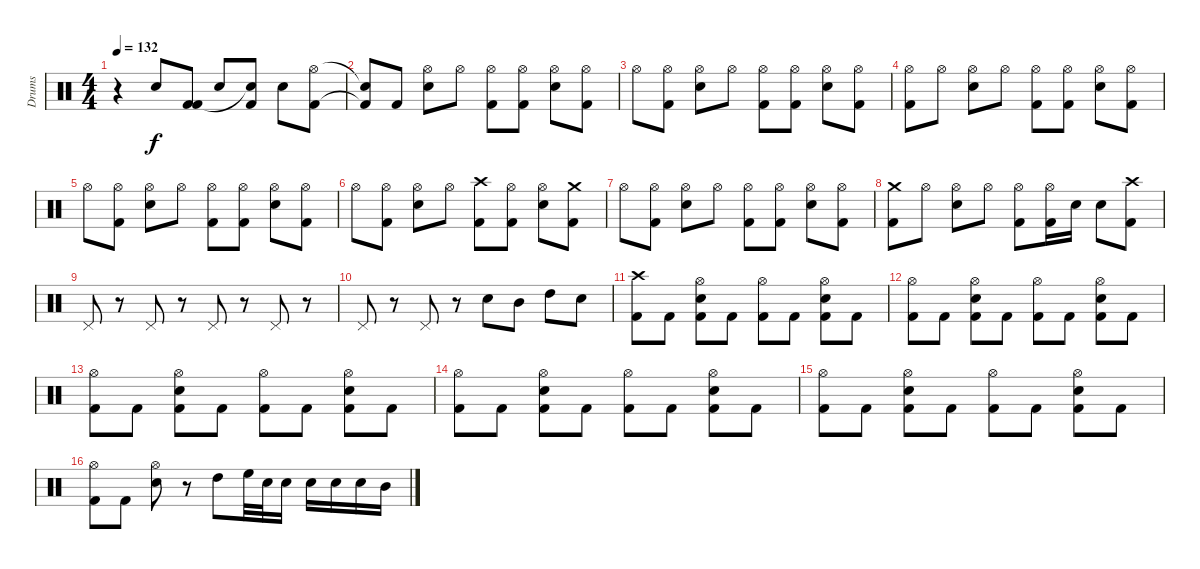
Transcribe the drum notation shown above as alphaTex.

\track ("Drums" "Drums") {instrument percussion}
\staff
\articulation defaults
\ts (4 4)
\tempo 132
\clef neutral
\ks c
r.4{dy f} "Snare (hit) 2".8 ("Kick (hit) 2" "Kick (hit) 2"{t}).8 "Snare (hit) 2".8 ("Kick (hit) 2" "Snare (hit)"{t}).8 "Snare (hit) 2".8 ("Kick (hit) 2" "Hi-Hat (open)").8 |
("Kick (hit) 2"{t} "Snare (hit)"{t}).8 "Kick (hit) 2".8 ("Snare (hit) 2" "Hi-Hat (open)").8 "Hi-Hat (open)".8 ("Kick (hit) 2" "Hi-Hat (open)").8 ("Kick (hit) 2" "Hi-Hat (open)").8 ("Snare (hit) 2" "Hi-Hat (open)").8 ("Kick (hit) 2" "Hi-Hat (open)").8 |
"Hi-Hat (open)".8 ("Kick (hit) 2" "Hi-Hat (open)").8 ("Snare (hit) 2" "Hi-Hat (open)").8 "Hi-Hat (open)".8 ("Kick (hit) 2" "Hi-Hat (open)").8 ("Kick (hit) 2" "Hi-Hat (open)").8 ("Snare (hit) 2" "Hi-Hat (open)").8 ("Kick (hit) 2" "Hi-Hat (open)").8 |
("Kick (hit) 2" "Hi-Hat (open)").8 "Hi-Hat (open)".8 ("Snare (hit) 2" "Hi-Hat (open)").8 "Hi-Hat (open)".8 ("Kick (hit) 2" "Hi-Hat (open)").8 ("Kick (hit) 2" "Hi-Hat (open)").8 ("Snare (hit) 2" "Hi-Hat (open)").8 ("Kick (hit) 2" "Hi-Hat (open)").8 |
"Hi-Hat (open)".8 ("Kick (hit) 2" "Hi-Hat (open)").8 ("Snare (hit) 2" "Hi-Hat (open)").8 "Hi-Hat (open)".8 ("Kick (hit) 2" "Hi-Hat (open)").8 ("Kick (hit) 2" "Hi-Hat (open)").8 ("Snare (hit) 2" "Hi-Hat (open)").8 ("Kick (hit) 2" "Hi-Hat (open)").8 |
"Hi-Hat (open)".8 ("Kick (hit) 2" "Hi-Hat (open)").8 ("Snare (hit) 2" "Hi-Hat (open)").8 "Hi-Hat (open)".8 ("Kick (hit) 2" "Crash high (hit)").8 ("Kick (hit) 2" "Hi-Hat (open)").8 ("Snare (hit) 2" "Hi-Hat (open)").8 ("Kick (hit) 2" "Crash medium (hit)").8 |
"Hi-Hat (open)".8 ("Kick (hit) 2" "Hi-Hat (open)").8 ("Snare (hit) 2" "Hi-Hat (open)").8 "Hi-Hat (open)".8 ("Kick (hit) 2" "Hi-Hat (open)").8 ("Kick (hit) 2" "Hi-Hat (open)").8 ("Snare (hit) 2" "Hi-Hat (open)").8 ("Kick (hit) 2" "Hi-Hat (open)").8 |
("Kick (hit) 2" "Crash medium (hit)").8 "Hi-Hat (open)".8 ("Snare (hit) 2" "Hi-Hat (open)").8 "Hi-Hat (open)".8 ("Kick (hit) 2" "Hi-Hat (open)").8 ("Kick (hit) 2" "Hi-Hat (open)").16 "Snare (hit) 2".16 "Snare (hit) 2".8 ("Kick (hit) 2" "Crash high (hit)").8 |
"Pedal Hi-Hat (hit)".8 r.8 "Pedal Hi-Hat (hit)".8 r.8 "Pedal Hi-Hat (hit)".8 r.8 "Pedal Hi-Hat (hit)".8 r.8 |
"Pedal Hi-Hat (hit)".8 r.8 "Pedal Hi-Hat (hit)".8 r.8 "Snare (hit) 2".8 "Mid Tom (hit)".8 "High Tom (hit)".8 "Snare (hit) 2".8 |
("Kick (hit) 2" "Crash high (hit)").8 "Kick (hit) 2".8 ("Kick (hit) 2" "Snare (hit) 2" "Hi-Hat (open)").8 "Kick (hit) 2".8 ("Kick (hit) 2" "Hi-Hat (open)").8 "Kick (hit) 2".8 ("Kick (hit) 2" "Snare (hit) 2" "Hi-Hat (open)").8 "Kick (hit) 2".8 |
("Kick (hit) 2" "Hi-Hat (open)").8 "Kick (hit) 2".8 ("Kick (hit) 2" "Snare (hit) 2" "Hi-Hat (open)").8 "Kick (hit) 2".8 ("Kick (hit) 2" "Hi-Hat (open)").8 "Kick (hit) 2".8 ("Kick (hit) 2" "Snare (hit) 2" "Hi-Hat (open)").8 "Kick (hit) 2".8 |
("Kick (hit) 2" "Hi-Hat (open)").8 "Kick (hit) 2".8 ("Kick (hit) 2" "Snare (hit) 2" "Hi-Hat (open)").8 "Kick (hit) 2".8 ("Kick (hit) 2" "Hi-Hat (open)").8 "Kick (hit) 2".8 ("Kick (hit) 2" "Snare (hit) 2" "Hi-Hat (open)").8 "Kick (hit) 2".8 |
("Kick (hit) 2" "Hi-Hat (open)").8 "Kick (hit) 2".8 ("Kick (hit) 2" "Snare (hit) 2" "Hi-Hat (open)").8 "Kick (hit) 2".8 ("Kick (hit) 2" "Hi-Hat (open)").8 "Kick (hit) 2".8 ("Kick (hit) 2" "Snare (hit) 2" "Hi-Hat (open)").8 "Kick (hit) 2".8 |
("Kick (hit) 2" "Hi-Hat (open)").8 "Kick (hit) 2".8 ("Kick (hit) 2" "Snare (hit) 2" "Hi-Hat (open)").8 "Kick (hit) 2".8 ("Kick (hit) 2" "Hi-Hat (open)").8 "Kick (hit) 2".8 ("Kick (hit) 2" "Snare (hit) 2" "Hi-Hat (open)").8 "Kick (hit) 2".8 |
("Kick (hit) 2" "Hi-Hat (open)").8 "Kick (hit) 2".8 ("Snare (hit) 2" "Hi-Hat (open)").8 r.8 "High Tom (hit)".8 "High Floor Tom (hit)".32 "Snare (hit) 2".32 "Snare (hit) 2".16 "Snare (hit) 2".16 "Snare (hit) 2".16 "Snare (hit) 2".16 "Mid Tom (hit)".16
